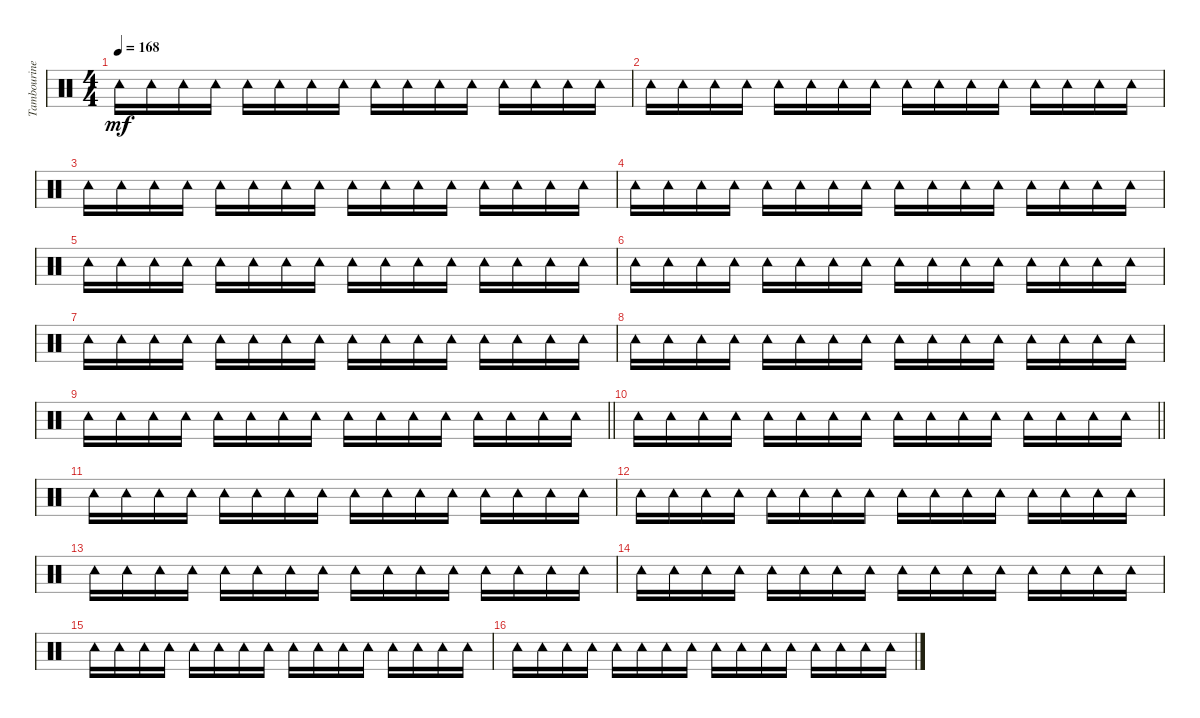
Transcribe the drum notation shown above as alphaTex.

\track ("Tambourine" "Tambourine") {instrument percussion}
\staff {score}
\articulation defaults
\ts (4 4)
\tempo 168
\clef neutral
\ks c "Tambourine (hit)".16{dy mf} "Tambourine (hit)".16 "Tambourine (hit)".16 "Tambourine (hit)".16 "Tambourine (hit)".16 "Tambourine (hit)".16 "Tambourine (hit)".16 "Tambourine (hit)".16 "Tambourine (hit)".16 "Tambourine (hit)".16 "Tambourine (hit)".16 "Tambourine (hit)".16 "Tambourine (hit)".16 "Tambourine (hit)".16 "Tambourine (hit)".16 "Tambourine (hit)".16
|
"Tambourine (hit)".16 "Tambourine (hit)".16 "Tambourine (hit)".16 "Tambourine (hit)".16 "Tambourine (hit)".16 "Tambourine (hit)".16 "Tambourine (hit)".16 "Tambourine (hit)".16 "Tambourine (hit)".16 "Tambourine (hit)".16 "Tambourine (hit)".16 "Tambourine (hit)".16 "Tambourine (hit)".16 "Tambourine (hit)".16 "Tambourine (hit)".16 "Tambourine (hit)".16 |
"Tambourine (hit)".16 "Tambourine (hit)".16 "Tambourine (hit)".16 "Tambourine (hit)".16 "Tambourine (hit)".16 "Tambourine (hit)".16 "Tambourine (hit)".16 "Tambourine (hit)".16 "Tambourine (hit)".16 "Tambourine (hit)".16 "Tambourine (hit)".16 "Tambourine (hit)".16 "Tambourine (hit)".16 "Tambourine (hit)".16 "Tambourine (hit)".16 "Tambourine (hit)".16 |
"Tambourine (hit)".16 "Tambourine (hit)".16 "Tambourine (hit)".16 "Tambourine (hit)".16 "Tambourine (hit)".16 "Tambourine (hit)".16 "Tambourine (hit)".16 "Tambourine (hit)".16 "Tambourine (hit)".16 "Tambourine (hit)".16 "Tambourine (hit)".16 "Tambourine (hit)".16 "Tambourine (hit)".16 "Tambourine (hit)".16 "Tambourine (hit)".16 "Tambourine (hit)".16 |
"Tambourine (hit)".16 "Tambourine (hit)".16 "Tambourine (hit)".16 "Tambourine (hit)".16 "Tambourine (hit)".16 "Tambourine (hit)".16 "Tambourine (hit)".16 "Tambourine (hit)".16 "Tambourine (hit)".16 "Tambourine (hit)".16 "Tambourine (hit)".16 "Tambourine (hit)".16 "Tambourine (hit)".16 "Tambourine (hit)".16 "Tambourine (hit)".16 "Tambourine (hit)".16 |
"Tambourine (hit)".16 "Tambourine (hit)".16 "Tambourine (hit)".16 "Tambourine (hit)".16 "Tambourine (hit)".16 "Tambourine (hit)".16 "Tambourine (hit)".16 "Tambourine (hit)".16 "Tambourine (hit)".16 "Tambourine (hit)".16 "Tambourine (hit)".16 "Tambourine (hit)".16 "Tambourine (hit)".16 "Tambourine (hit)".16 "Tambourine (hit)".16 "Tambourine (hit)".16 |
"Tambourine (hit)".16 "Tambourine (hit)".16 "Tambourine (hit)".16 "Tambourine (hit)".16 "Tambourine (hit)".16 "Tambourine (hit)".16 "Tambourine (hit)".16 "Tambourine (hit)".16 "Tambourine (hit)".16 "Tambourine (hit)".16 "Tambourine (hit)".16 "Tambourine (hit)".16 "Tambourine (hit)".16 "Tambourine (hit)".16 "Tambourine (hit)".16 "Tambourine (hit)".16 |
"Tambourine (hit)".16 "Tambourine (hit)".16 "Tambourine (hit)".16 "Tambourine (hit)".16 "Tambourine (hit)".16 "Tambourine (hit)".16 "Tambourine (hit)".16 "Tambourine (hit)".16 "Tambourine (hit)".16 "Tambourine (hit)".16 "Tambourine (hit)".16 "Tambourine (hit)".16 "Tambourine (hit)".16 "Tambourine (hit)".16 "Tambourine (hit)".16 "Tambourine (hit)".16 |
\barLineRight lightlight "Tambourine (hit)".16 "Tambourine (hit)".16 "Tambourine (hit)".16 "Tambourine (hit)".16 "Tambourine (hit)".16 "Tambourine (hit)".16 "Tambourine (hit)".16 "Tambourine (hit)".16 "Tambourine (hit)".16 "Tambourine (hit)".16 "Tambourine (hit)".16 "Tambourine (hit)".16 "Tambourine (hit)".16 "Tambourine (hit)".16 "Tambourine (hit)".16 "Tambourine (hit)".16
|
\barLineRight lightlight "Tambourine (hit)".16 "Tambourine (hit)".16 "Tambourine (hit)".16 "Tambourine (hit)".16 "Tambourine (hit)".16 "Tambourine (hit)".16 "Tambourine (hit)".16 "Tambourine (hit)".16 "Tambourine (hit)".16 "Tambourine (hit)".16 "Tambourine (hit)".16 "Tambourine (hit)".16 "Tambourine (hit)".16 "Tambourine (hit)".16 "Tambourine (hit)".16 "Tambourine (hit)".16
|
"Tambourine (hit)".16 "Tambourine (hit)".16 "Tambourine (hit)".16 "Tambourine (hit)".16 "Tambourine (hit)".16 "Tambourine (hit)".16 "Tambourine (hit)".16 "Tambourine (hit)".16 "Tambourine (hit)".16 "Tambourine (hit)".16 "Tambourine (hit)".16 "Tambourine (hit)".16 "Tambourine (hit)".16 "Tambourine (hit)".16 "Tambourine (hit)".16 "Tambourine (hit)".16 |
"Tambourine (hit)".16 "Tambourine (hit)".16 "Tambourine (hit)".16 "Tambourine (hit)".16 "Tambourine (hit)".16 "Tambourine (hit)".16 "Tambourine (hit)".16 "Tambourine (hit)".16 "Tambourine (hit)".16 "Tambourine (hit)".16 "Tambourine (hit)".16 "Tambourine (hit)".16 "Tambourine (hit)".16 "Tambourine (hit)".16 "Tambourine (hit)".16 "Tambourine (hit)".16 |
"Tambourine (hit)".16 "Tambourine (hit)".16 "Tambourine (hit)".16 "Tambourine (hit)".16 "Tambourine (hit)".16 "Tambourine (hit)".16 "Tambourine (hit)".16 "Tambourine (hit)".16 "Tambourine (hit)".16 "Tambourine (hit)".16 "Tambourine (hit)".16 "Tambourine (hit)".16 "Tambourine (hit)".16 "Tambourine (hit)".16 "Tambourine (hit)".16 "Tambourine (hit)".16 |
"Tambourine (hit)".16 "Tambourine (hit)".16 "Tambourine (hit)".16 "Tambourine (hit)".16 "Tambourine (hit)".16 "Tambourine (hit)".16 "Tambourine (hit)".16 "Tambourine (hit)".16 "Tambourine (hit)".16 "Tambourine (hit)".16 "Tambourine (hit)".16 "Tambourine (hit)".16 "Tambourine (hit)".16 "Tambourine (hit)".16 "Tambourine (hit)".16 "Tambourine (hit)".16 |
"Tambourine (hit)".16 "Tambourine (hit)".16 "Tambourine (hit)".16 "Tambourine (hit)".16 "Tambourine (hit)".16 "Tambourine (hit)".16 "Tambourine (hit)".16 "Tambourine (hit)".16 "Tambourine (hit)".16 "Tambourine (hit)".16 "Tambourine (hit)".16 "Tambourine (hit)".16 "Tambourine (hit)".16 "Tambourine (hit)".16 "Tambourine (hit)".16 "Tambourine (hit)".16 |
"Tambourine (hit)".16 "Tambourine (hit)".16 "Tambourine (hit)".16 "Tambourine (hit)".16 "Tambourine (hit)".16 "Tambourine (hit)".16 "Tambourine (hit)".16 "Tambourine (hit)".16 "Tambourine (hit)".16 "Tambourine (hit)".16 "Tambourine (hit)".16 "Tambourine (hit)".16 "Tambourine (hit)".16 "Tambourine (hit)".16 "Tambourine (hit)".16 "Tambourine (hit)".16
